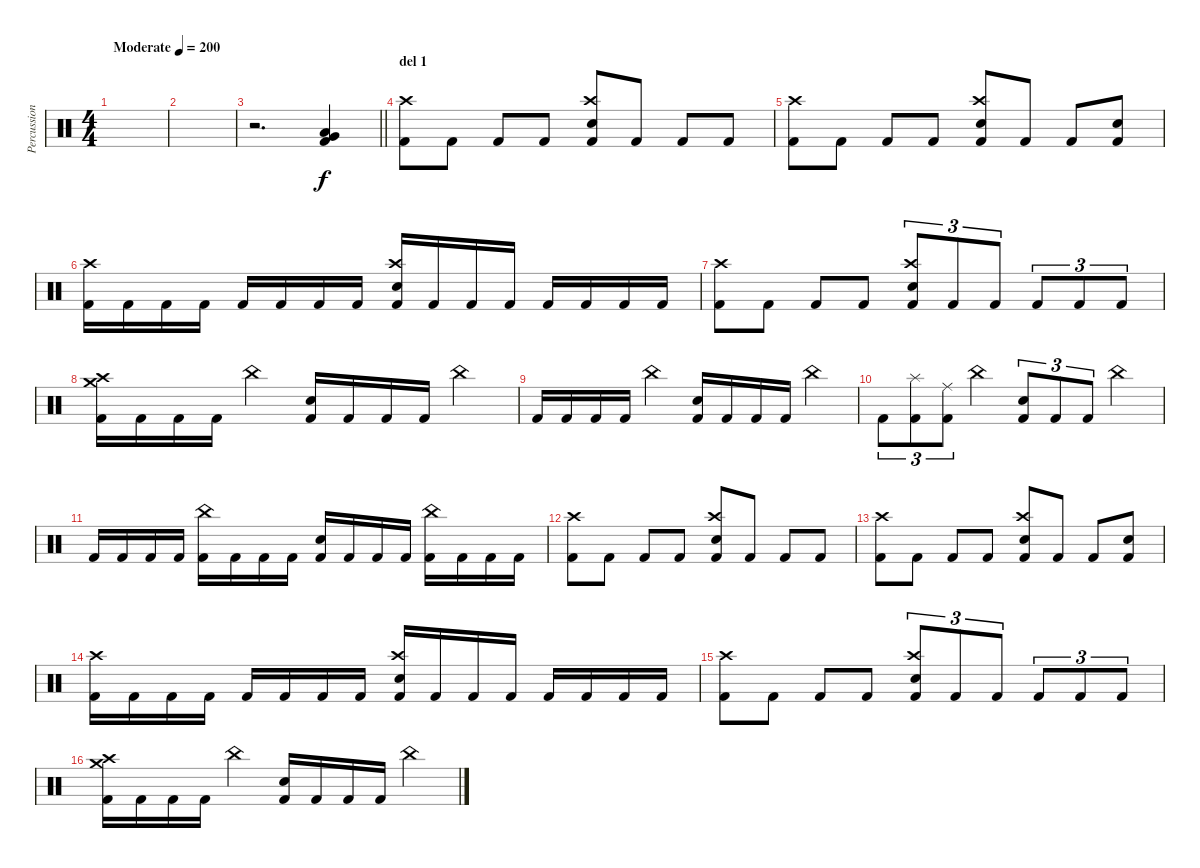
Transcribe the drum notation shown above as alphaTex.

\track ("Percussion" "Percussion") {instrument percussion}
\staff {score}
\articulation defaults
\ts (4 4)
\tempo (200 "Moderate")
\clef neutral
\ks c
|
|
\barLineRight lightlight
r.2{d} ("Very Low Tom (hit)" "Low Floor Tom (hit)" "Kick (hit) 2").4 |
\section ("" "del 1")
("Crash high (hit)" "Kick (hit) 2").8 "Kick (hit) 2".8 "Kick (hit) 2".8 "Kick (hit) 2".8 ("Crash high (hit)" "Snare (hit) 2" "Kick (hit) 2").8 "Kick (hit) 2".8 "Kick (hit) 2".8 "Kick (hit) 2".8 |
("Crash high (hit)" "Kick (hit) 2").8 "Kick (hit) 2".8 "Kick (hit) 2".8 "Kick (hit) 2".8 ("Crash high (hit)" "Snare (hit) 2" "Kick (hit) 2").8 "Kick (hit) 2".8 "Kick (hit) 2".8 ("Snare (hit) 2" "Kick (hit) 2").8 |
("Crash high (hit)" "Kick (hit) 2").16 "Kick (hit) 2".16 "Kick (hit) 2".16 "Kick (hit) 2".16 "Kick (hit) 2".16 "Kick (hit) 2".16 "Kick (hit) 2".16 "Kick (hit) 2".16 ("Crash high (hit)" "Snare (hit) 2" "Kick (hit) 2").16 "Kick (hit) 2".16 "Kick (hit) 2".16 "Kick (hit) 2".16 "Kick (hit) 2".16 "Kick (hit) 2".16 "Kick (hit) 2".16 "Kick (hit) 2".16 |
("Crash high (hit)" "Kick (hit) 2").8 "Kick (hit) 2".8 "Kick (hit) 2".8 "Kick (hit) 2".8 ("Crash high (hit)" "Snare (hit) 2" "Kick (hit) 2").8{tu (3 2)} "Kick (hit) 2".8{tu (3 2)} "Kick (hit) 2".8{tu (3 2)} "Kick (hit) 2".8{tu (3 2)} "Kick (hit) 2".8{tu (3 2)} "Kick (hit) 2".8{tu (3 2)} |
("Crash high (hit)" "Crash medium (hit)" "Kick (hit) 2").16 "Kick (hit) 2".16 "Kick (hit) 2".16 "Kick (hit) 2".16 "China (hit)".4 ("Snare (hit) 2" "Kick (hit) 2").16 "Kick (hit) 2".16 "Kick (hit) 2".16 "Kick (hit) 2".16 "China (hit)".4 |
"Kick (hit) 2".16 "Kick (hit) 2".16 "Kick (hit) 2".16 "Kick (hit) 2".16 "China (hit)".4 ("Snare (hit) 2" "Kick (hit) 2").16 "Kick (hit) 2".16 "Kick (hit) 2".16 "Kick (hit) 2".16 "China (hit)".4 |
"Kick (hit) 2".8{tu (3 2)} ("Splash (hit)" "Kick (hit) 2").8{tu (3 2)} ("Ride (middle)" "Kick (hit) 2").8{tu (3 2)} "China (hit)".4 ("Snare (hit) 2" "Kick (hit) 2").8{tu (3 2)} "Kick (hit) 2".8{tu (3 2)} "Kick (hit) 2".8{tu (3 2)} "China (hit)".4 |
"Kick (hit) 2".16 "Kick (hit) 2".16 "Kick (hit) 2".16 "Kick (hit) 2".16 ("China (hit)" "Kick (hit) 2").16 "Kick (hit) 2".16 "Kick (hit) 2".16 "Kick (hit) 2".16 ("Snare (hit) 2" "Kick (hit) 2").16 "Kick (hit) 2".16 "Kick (hit) 2".16 "Kick (hit) 2".16 ("China (hit)" "Kick (hit) 2").16 "Kick (hit) 2".16 "Kick (hit) 2".16 "Kick (hit) 2".16 |
("Crash high (hit)" "Kick (hit) 2").8 "Kick (hit) 2".8 "Kick (hit) 2".8 "Kick (hit) 2".8 ("Crash high (hit)" "Snare (hit) 2" "Kick (hit) 2").8 "Kick (hit) 2".8 "Kick (hit) 2".8 "Kick (hit) 2".8 |
("Crash high (hit)" "Kick (hit) 2").8 "Kick (hit) 2".8 "Kick (hit) 2".8 "Kick (hit) 2".8 ("Crash high (hit)" "Snare (hit) 2" "Kick (hit) 2").8 "Kick (hit) 2".8 "Kick (hit) 2".8 ("Snare (hit) 2" "Kick (hit) 2").8 |
("Crash high (hit)" "Kick (hit) 2").16 "Kick (hit) 2".16 "Kick (hit) 2".16 "Kick (hit) 2".16 "Kick (hit) 2".16 "Kick (hit) 2".16 "Kick (hit) 2".16 "Kick (hit) 2".16 ("Crash high (hit)" "Snare (hit) 2" "Kick (hit) 2").16 "Kick (hit) 2".16 "Kick (hit) 2".16 "Kick (hit) 2".16 "Kick (hit) 2".16 "Kick (hit) 2".16 "Kick (hit) 2".16 "Kick (hit) 2".16 |
("Crash high (hit)" "Kick (hit) 2").8 "Kick (hit) 2".8 "Kick (hit) 2".8 "Kick (hit) 2".8 ("Crash high (hit)" "Snare (hit) 2" "Kick (hit) 2").8{tu (3 2)} "Kick (hit) 2".8{tu (3 2)} "Kick (hit) 2".8{tu (3 2)} "Kick (hit) 2".8{tu (3 2)} "Kick (hit) 2".8{tu (3 2)} "Kick (hit) 2".8{tu (3 2)} |
("Crash high (hit)" "Crash medium (hit)" "Kick (hit) 2").16 "Kick (hit) 2".16 "Kick (hit) 2".16 "Kick (hit) 2".16 "China (hit)".4 ("Snare (hit) 2" "Kick (hit) 2").16 "Kick (hit) 2".16 "Kick (hit) 2".16 "Kick (hit) 2".16 "China (hit)".4
